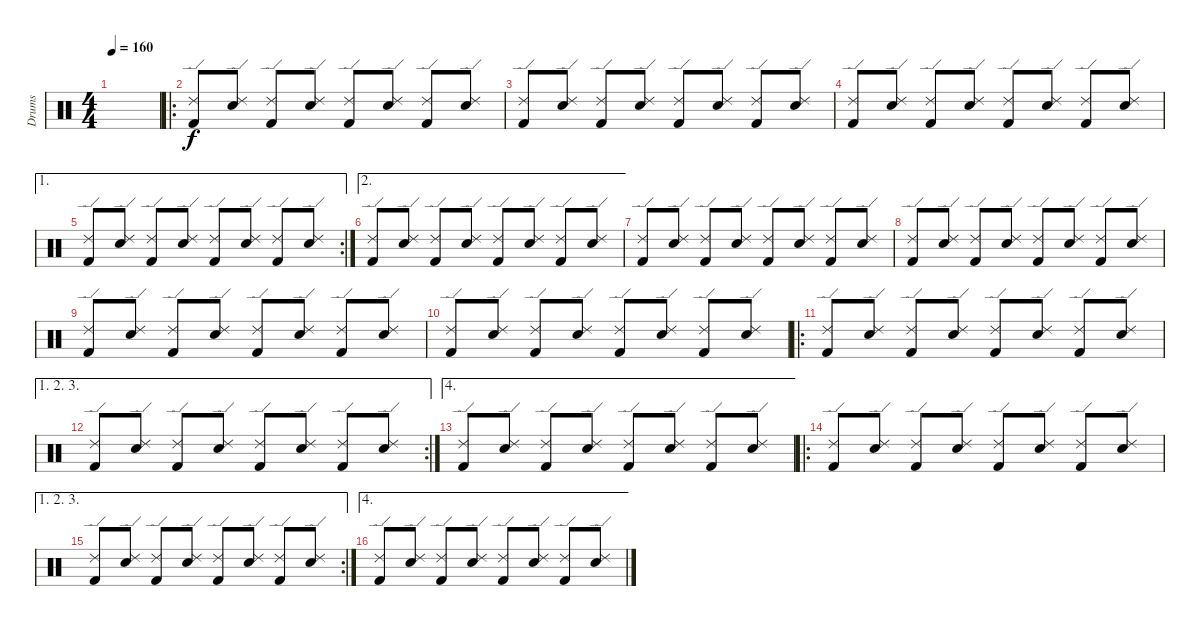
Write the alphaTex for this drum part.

\track ("Drums" "Drums") {instrument percussion}
\staff {score}
\articulation defaults
\ts (4 4)
\tempo 160
\clef neutral
\ks c
|
\ro
("Ride (edge) 2" "Kick (hit) 2").8 ("Ride (edge) 2" "Snare (hit) 2").8 ("Ride (edge) 2" "Kick (hit) 2").8 ("Ride (edge) 2" "Snare (hit) 2").8 ("Ride (edge) 2" "Kick (hit) 2").8 ("Ride (edge) 2" "Snare (hit) 2").8 ("Ride (edge) 2" "Kick (hit) 2").8 ("Ride (edge) 2" "Snare (hit) 2").8 |
("Ride (edge) 2" "Kick (hit) 2").8 ("Ride (edge) 2" "Snare (hit) 2").8 ("Ride (edge) 2" "Kick (hit) 2").8 ("Ride (edge) 2" "Snare (hit) 2").8 ("Ride (edge) 2" "Kick (hit) 2").8 ("Ride (edge) 2" "Snare (hit) 2").8 ("Ride (edge) 2" "Kick (hit) 2").8 ("Ride (edge) 2" "Snare (hit) 2").8 |
("Ride (edge) 2" "Kick (hit) 2").8 ("Ride (edge) 2" "Snare (hit) 2").8 ("Ride (edge) 2" "Kick (hit) 2").8 ("Ride (edge) 2" "Snare (hit) 2").8 ("Ride (edge) 2" "Kick (hit) 2").8 ("Ride (edge) 2" "Snare (hit) 2").8 ("Ride (edge) 2" "Kick (hit) 2").8 ("Ride (edge) 2" "Snare (hit) 2").8 |
\ae 1
\rc 2
("Ride (edge) 2" "Kick (hit) 2").8 ("Ride (edge) 2" "Snare (hit) 2").8 ("Ride (edge) 2" "Kick (hit) 2").8 ("Ride (edge) 2" "Snare (hit) 2").8 ("Ride (edge) 2" "Kick (hit) 2").8 ("Ride (edge) 2" "Snare (hit) 2").8 ("Ride (edge) 2" "Kick (hit) 2").8 ("Ride (edge) 2" "Snare (hit) 2").8 |
\ae 2
("Ride (edge) 2" "Kick (hit) 2").8 ("Ride (edge) 2" "Snare (hit) 2").8 ("Ride (edge) 2" "Kick (hit) 2").8 ("Ride (edge) 2" "Snare (hit) 2").8 ("Ride (edge) 2" "Kick (hit) 2").8 ("Ride (edge) 2" "Snare (hit) 2").8 ("Ride (edge) 2" "Kick (hit) 2").8 ("Ride (edge) 2" "Snare (hit) 2").8 |
("Ride (edge) 2" "Kick (hit) 2").8 ("Ride (edge) 2" "Snare (hit) 2").8 ("Ride (edge) 2" "Kick (hit) 2").8 ("Ride (edge) 2" "Snare (hit) 2").8 ("Ride (edge) 2" "Kick (hit) 2").8 ("Ride (edge) 2" "Snare (hit) 2").8 ("Ride (edge) 2" "Kick (hit) 2").8 ("Ride (edge) 2" "Snare (hit) 2").8 |
("Ride (edge) 2" "Kick (hit) 2").8 ("Ride (edge) 2" "Snare (hit) 2").8 ("Ride (edge) 2" "Kick (hit) 2").8 ("Ride (edge) 2" "Snare (hit) 2").8 ("Ride (edge) 2" "Kick (hit) 2").8 ("Ride (edge) 2" "Snare (hit) 2").8 ("Ride (edge) 2" "Kick (hit) 2").8 ("Ride (edge) 2" "Snare (hit) 2").8 |
("Ride (edge) 2" "Kick (hit) 2").8 ("Ride (edge) 2" "Snare (hit) 2").8 ("Ride (edge) 2" "Kick (hit) 2").8 ("Ride (edge) 2" "Snare (hit) 2").8 ("Ride (edge) 2" "Kick (hit) 2").8 ("Ride (edge) 2" "Snare (hit) 2").8 ("Ride (edge) 2" "Kick (hit) 2").8 ("Ride (edge) 2" "Snare (hit) 2").8 |
("Ride (edge) 2" "Kick (hit) 2").8 ("Ride (edge) 2" "Snare (hit) 2").8 ("Ride (edge) 2" "Kick (hit) 2").8 ("Ride (edge) 2" "Snare (hit) 2").8 ("Ride (edge) 2" "Kick (hit) 2").8 ("Ride (edge) 2" "Snare (hit) 2").8 ("Ride (edge) 2" "Kick (hit) 2").8 ("Ride (edge) 2" "Snare (hit) 2").8 |
\ro
("Ride (edge) 2" "Kick (hit) 2").8 ("Ride (edge) 2" "Snare (hit) 2").8 ("Ride (edge) 2" "Kick (hit) 2").8 ("Ride (edge) 2" "Snare (hit) 2").8 ("Ride (edge) 2" "Kick (hit) 2").8 ("Ride (edge) 2" "Snare (hit) 2").8 ("Ride (edge) 2" "Kick (hit) 2").8 ("Ride (edge) 2" "Snare (hit) 2").8 |
\ae (1 2 3)
\rc 2
("Ride (edge) 2" "Kick (hit) 2").8 ("Ride (edge) 2" "Snare (hit) 2").8 ("Ride (edge) 2" "Kick (hit) 2").8 ("Ride (edge) 2" "Snare (hit) 2").8 ("Ride (edge) 2" "Kick (hit) 2").8 ("Ride (edge) 2" "Snare (hit) 2").8 ("Ride (edge) 2" "Kick (hit) 2").8 ("Ride (edge) 2" "Snare (hit) 2").8 |
\ae 4
("Ride (edge) 2" "Kick (hit) 2").8 ("Ride (edge) 2" "Snare (hit) 2").8 ("Ride (edge) 2" "Kick (hit) 2").8 ("Ride (edge) 2" "Snare (hit) 2").8 ("Ride (edge) 2" "Kick (hit) 2").8 ("Ride (edge) 2" "Snare (hit) 2").8 ("Ride (edge) 2" "Kick (hit) 2").8 ("Ride (edge) 2" "Snare (hit) 2").8 |
\ro
("Ride (edge) 2" "Kick (hit) 2").8 ("Ride (edge) 2" "Snare (hit) 2").8 ("Ride (edge) 2" "Kick (hit) 2").8 ("Ride (edge) 2" "Snare (hit) 2").8 ("Ride (edge) 2" "Kick (hit) 2").8 ("Ride (edge) 2" "Snare (hit) 2").8 ("Ride (edge) 2" "Kick (hit) 2").8 ("Ride (edge) 2" "Snare (hit) 2").8 |
\ae (1 2 3)
\rc 2
("Ride (edge) 2" "Kick (hit) 2").8 ("Ride (edge) 2" "Snare (hit) 2").8 ("Ride (edge) 2" "Kick (hit) 2").8 ("Ride (edge) 2" "Snare (hit) 2").8 ("Ride (edge) 2" "Kick (hit) 2").8 ("Ride (edge) 2" "Snare (hit) 2").8 ("Ride (edge) 2" "Kick (hit) 2").8 ("Ride (edge) 2" "Snare (hit) 2").8 |
\ae 4
("Ride (edge) 2" "Kick (hit) 2").8 ("Ride (edge) 2" "Snare (hit) 2").8 ("Ride (edge) 2" "Kick (hit) 2").8 ("Ride (edge) 2" "Snare (hit) 2").8 ("Ride (edge) 2" "Kick (hit) 2").8 ("Ride (edge) 2" "Snare (hit) 2").8 ("Ride (edge) 2" "Kick (hit) 2").8 ("Ride (edge) 2" "Snare (hit) 2").8
